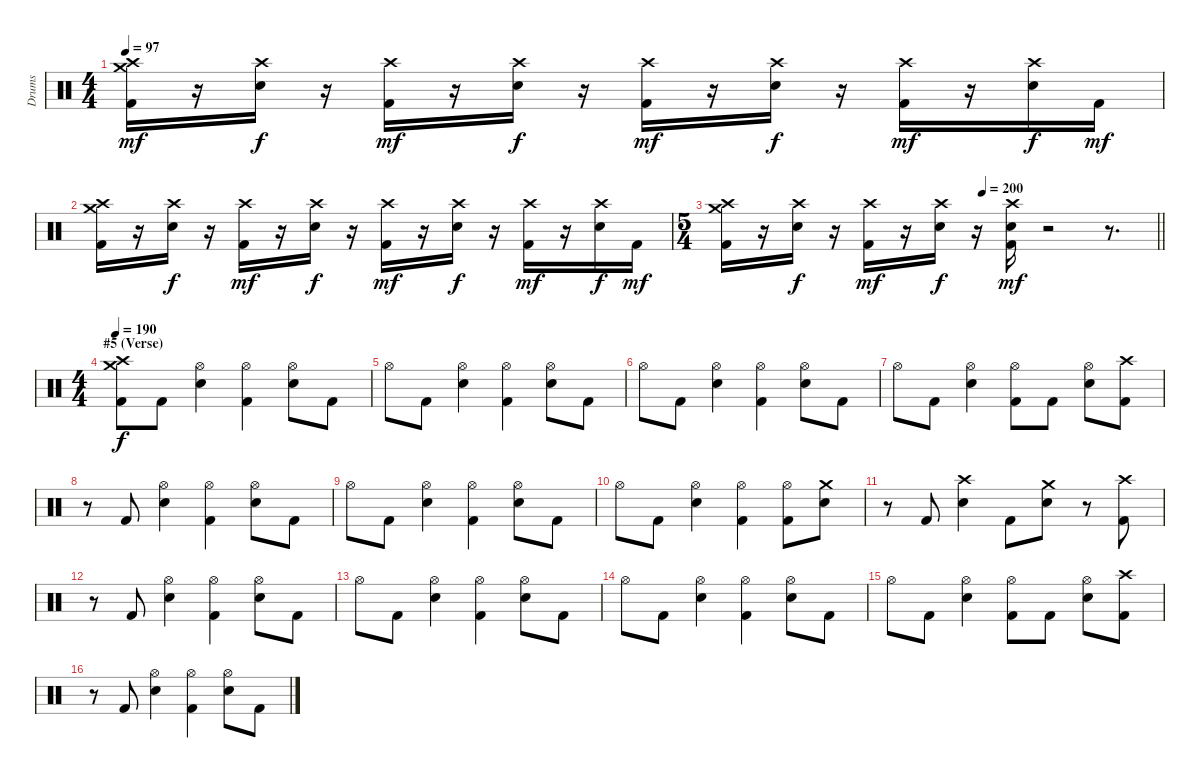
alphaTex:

\track ("Drums" "Drums") {instrument percussion}
\staff {score}
\articulation defaults
\ts (4 4)
\tempo 97
\clef neutral
\ks c
("Crash high (hit)" "Crash medium (hit)" "Kick (hit) 2").16{dy mf} r.16 ("Crash high (hit)" "Electric Snare (hit)").16{dy f} r.16 ("Crash high (hit)" "Kick (hit) 2").16{dy mf} r.16 ("Crash high (hit)" "Electric Snare (hit)").16{dy f} r.16 ("Crash high (hit)" "Kick (hit) 2").16{dy mf} r.16 ("Crash high (hit)" "Electric Snare (hit)").16{dy f} r.16 ("Crash high (hit)" "Kick (hit) 2").16{dy mf} r.16 ("Crash high (hit)" "Electric Snare (hit)").16{dy f} "Kick (hit) 2".16{dy mf} |
("Crash high (hit)" "Crash medium (hit)" "Kick (hit) 2").16 r.16 ("Crash high (hit)" "Electric Snare (hit)").16{dy f} r.16 ("Crash high (hit)" "Kick (hit) 2").16{dy mf} r.16 ("Crash high (hit)" "Electric Snare (hit)").16{dy f} r.16 ("Crash high (hit)" "Kick (hit) 2").16{dy mf} r.16 ("Crash high (hit)" "Electric Snare (hit)").16{dy f} r.16 ("Crash high (hit)" "Kick (hit) 2").16{dy mf} r.16 ("Crash high (hit)" "Electric Snare (hit)").16{dy f} "Kick (hit) 2".16{dy mf} |
\ts (5 4)
\tempo (200 0.6)
\barLineRight lightlight
("Crash high (hit)" "Crash medium (hit)" "Kick (hit) 2").16 r.16 ("Crash high (hit)" "Electric Snare (hit)").16{dy f} r.16 ("Crash high (hit)" "Kick (hit) 2").16{dy mf} r.16 ("Crash high (hit)" "Electric Snare (hit)").16{dy f} r.16 ("Crash high (hit)" "Electric Snare (hit)" "Kick (hit) 2").16{dy mf} r.2 r.8{d} |
\ts (4 4)
\section ("" "#5 (Verse)")
\tempo 97
\tempo 190
("Crash high (hit)" "Crash medium (hit)" "Kick (hit) 2").8{dy f} "Kick (hit) 2".8 ("Hi-Hat (open)" "Electric Snare (hit)").4 ("Hi-Hat (open)" "Kick (hit) 2").4 ("Hi-Hat (open)" "Electric Snare (hit)").8 "Kick (hit) 2".8 |
"Hi-Hat (open)".8 "Kick (hit) 2".8 ("Hi-Hat (open)" "Electric Snare (hit)").4 ("Hi-Hat (open)" "Kick (hit) 2").4 ("Hi-Hat (open)" "Electric Snare (hit)").8 "Kick (hit) 2".8 |
"Hi-Hat (open)".8 "Kick (hit) 2".8 ("Hi-Hat (open)" "Electric Snare (hit)").4 ("Hi-Hat (open)" "Kick (hit) 2").4 ("Hi-Hat (open)" "Electric Snare (hit)").8 "Kick (hit) 2".8 |
"Hi-Hat (open)".8 "Kick (hit) 2".8 ("Hi-Hat (open)" "Electric Snare (hit)").4 ("Hi-Hat (open)" "Kick (hit) 2").8 "Kick (hit) 2".8 ("Hi-Hat (open)" "Electric Snare (hit)").8 ("Crash high (hit)" "Kick (hit) 2").8 |
r.8 "Kick (hit) 2".8 ("Hi-Hat (open)" "Electric Snare (hit)").4 ("Hi-Hat (open)" "Kick (hit) 2").4 ("Hi-Hat (open)" "Electric Snare (hit)").8 "Kick (hit) 2".8 |
"Hi-Hat (open)".8 "Kick (hit) 2".8 ("Hi-Hat (open)" "Electric Snare (hit)").4 ("Hi-Hat (open)" "Kick (hit) 2").4 ("Hi-Hat (open)" "Electric Snare (hit)").8 "Kick (hit) 2".8 |
"Hi-Hat (open)".8 "Kick (hit) 2".8 ("Hi-Hat (open)" "Electric Snare (hit)").4 ("Hi-Hat (open)" "Kick (hit) 2").4 ("Hi-Hat (open)" "Kick (hit) 2").8 ("Crash medium (hit)" "Electric Snare (hit)").8 |
r.8 "Kick (hit) 2".8 ("Crash high (hit)" "Electric Snare (hit)").4 "Kick (hit) 2".8 ("Crash medium (hit)" "Electric Snare (hit)").8 r.8 ("Crash high (hit)" "Kick (hit) 2").8 |
r.8 "Kick (hit) 2".8 ("Hi-Hat (open)" "Electric Snare (hit)").4 ("Hi-Hat (open)" "Kick (hit) 2").4 ("Hi-Hat (open)" "Electric Snare (hit)").8 "Kick (hit) 2".8 |
"Hi-Hat (open)".8 "Kick (hit) 2".8 ("Hi-Hat (open)" "Electric Snare (hit)").4 ("Hi-Hat (open)" "Kick (hit) 2").4 ("Hi-Hat (open)" "Electric Snare (hit)").8 "Kick (hit) 2".8 |
"Hi-Hat (open)".8 "Kick (hit) 2".8 ("Hi-Hat (open)" "Electric Snare (hit)").4 ("Hi-Hat (open)" "Kick (hit) 2").4 ("Hi-Hat (open)" "Electric Snare (hit)").8 "Kick (hit) 2".8 |
"Hi-Hat (open)".8 "Kick (hit) 2".8 ("Hi-Hat (open)" "Electric Snare (hit)").4 ("Hi-Hat (open)" "Kick (hit) 2").8 "Kick (hit) 2".8 ("Hi-Hat (open)" "Electric Snare (hit)").8 ("Crash high (hit)" "Kick (hit) 2").8 |
r.8 "Kick (hit) 2".8 ("Hi-Hat (open)" "Electric Snare (hit)").4 ("Hi-Hat (open)" "Kick (hit) 2").4 ("Hi-Hat (open)" "Electric Snare (hit)").8 "Kick (hit) 2".8
